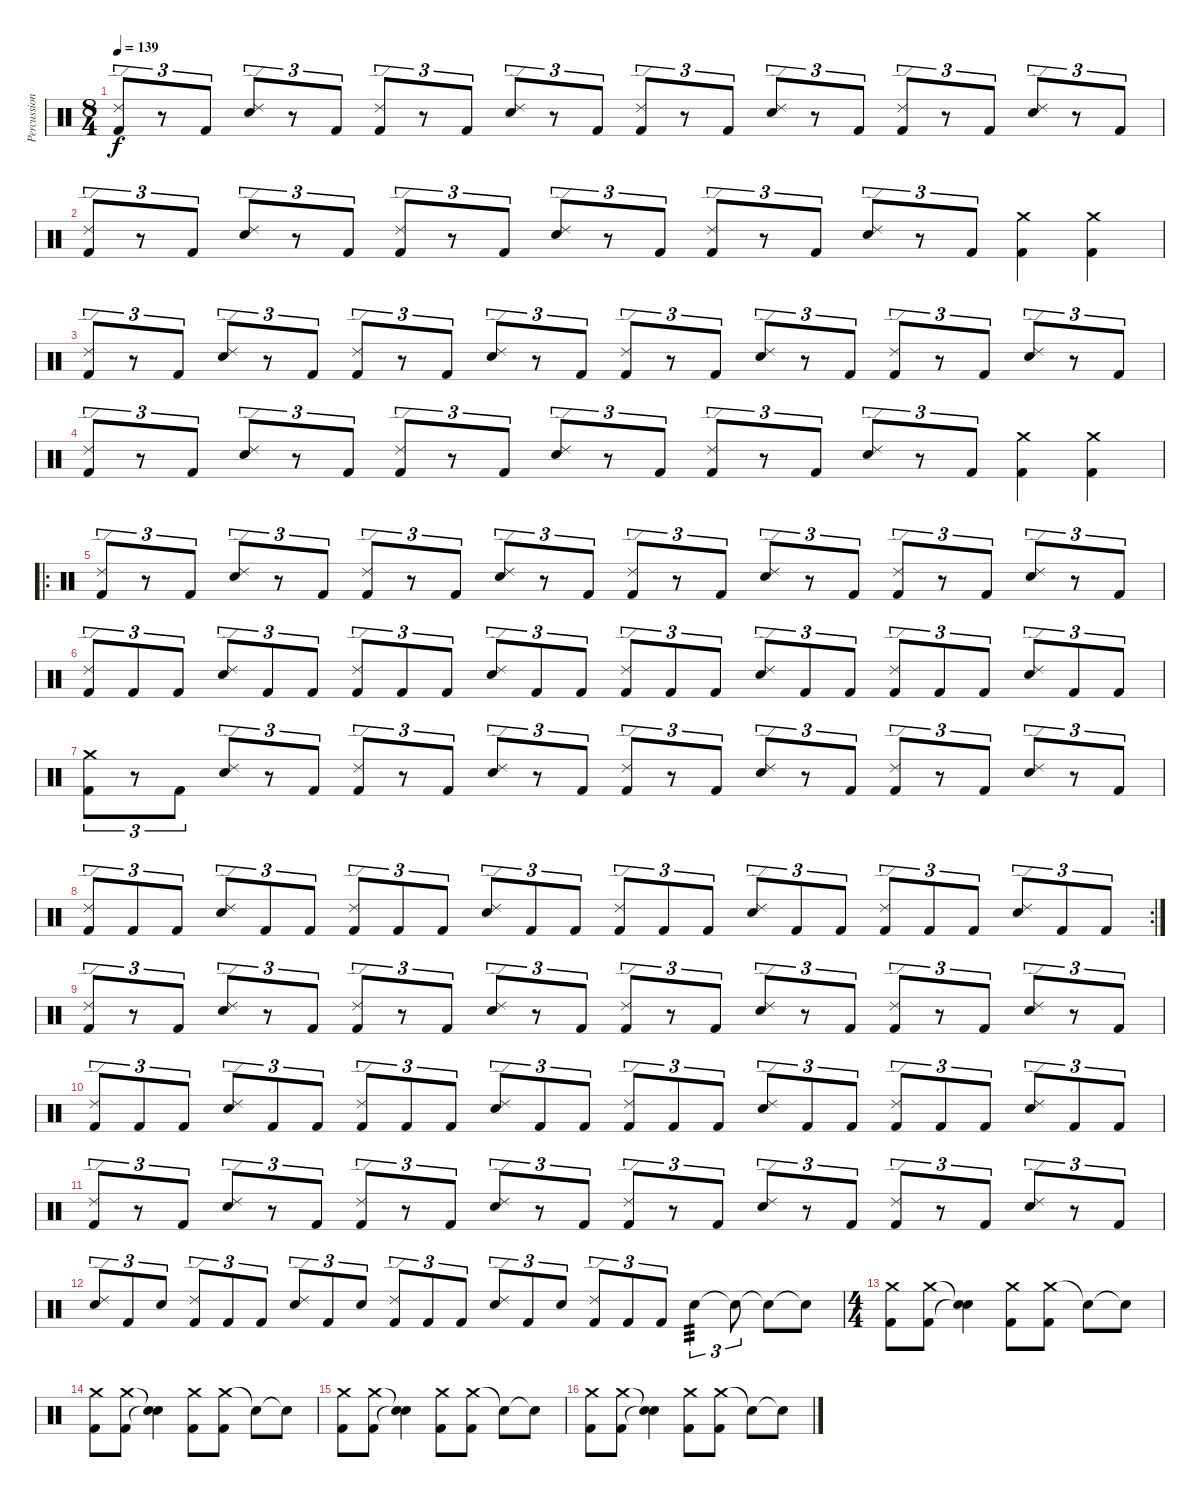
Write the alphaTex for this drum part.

\track ("Percussion" "Percussion") {instrument percussion}
\staff {score}
\articulation defaults
\ts (8 4)
\tempo 139
\clef neutral
\ks c
("Kick (hit) 2" "Ride (edge) 2").8{tu (3 2) dy f} r.8{tu (3 2)} "Kick (hit) 2".8{tu (3 2)} ("Snare (hit) 2" "Ride (edge) 2").8{tu (3 2)} r.8{tu (3 2)} "Kick (hit) 2".8{tu (3 2)} ("Kick (hit) 2" "Ride (edge) 2").8{tu (3 2)} r.8{tu (3 2)} "Kick (hit) 2".8{tu (3 2)} ("Snare (hit) 2" "Ride (edge) 2").8{tu (3 2)} r.8{tu (3 2)} "Kick (hit) 2".8{tu (3 2)} ("Kick (hit) 2" "Ride (edge) 2").8{tu (3 2)} r.8{tu (3 2)} "Kick (hit) 2".8{tu (3 2)} ("Snare (hit) 2" "Ride (edge) 2").8{tu (3 2)} r.8{tu (3 2)} "Kick (hit) 2".8{tu (3 2)} ("Kick (hit) 2" "Ride (edge) 2").8{tu (3 2)} r.8{tu (3 2)} "Kick (hit) 2".8{tu (3 2)} ("Snare (hit) 2" "Ride (edge) 2").8{tu (3 2)} r.8{tu (3 2)} "Kick (hit) 2".8{tu (3 2)} |
("Kick (hit) 2" "Ride (edge) 2").8{tu (3 2)} r.8{tu (3 2)} "Kick (hit) 2".8{tu (3 2)} ("Snare (hit) 2" "Ride (edge) 2").8{tu (3 2)} r.8{tu (3 2)} "Kick (hit) 2".8{tu (3 2)} ("Kick (hit) 2" "Ride (edge) 2").8{tu (3 2)} r.8{tu (3 2)} "Kick (hit) 2".8{tu (3 2)} ("Snare (hit) 2" "Ride (edge) 2").8{tu (3 2)} r.8{tu (3 2)} "Kick (hit) 2".8{tu (3 2)} ("Kick (hit) 2" "Ride (edge) 2").8{tu (3 2)} r.8{tu (3 2)} "Kick (hit) 2".8{tu (3 2)} ("Snare (hit) 2" "Ride (edge) 2").8{tu (3 2)} r.8{tu (3 2)} "Kick (hit) 2".8{tu (3 2)} ("Kick (hit) 2" "Crash medium (hit)").4 ("Kick (hit) 2" "Crash medium (hit)").4 |
("Kick (hit) 2" "Ride (edge) 2").8{tu (3 2)} r.8{tu (3 2)} "Kick (hit) 2".8{tu (3 2)} ("Snare (hit) 2" "Ride (edge) 2").8{tu (3 2)} r.8{tu (3 2)} "Kick (hit) 2".8{tu (3 2)} ("Kick (hit) 2" "Ride (edge) 2").8{tu (3 2)} r.8{tu (3 2)} "Kick (hit) 2".8{tu (3 2)} ("Snare (hit) 2" "Ride (edge) 2").8{tu (3 2)} r.8{tu (3 2)} "Kick (hit) 2".8{tu (3 2)} ("Kick (hit) 2" "Ride (edge) 2").8{tu (3 2)} r.8{tu (3 2)} "Kick (hit) 2".8{tu (3 2)} ("Snare (hit) 2" "Ride (edge) 2").8{tu (3 2)} r.8{tu (3 2)} "Kick (hit) 2".8{tu (3 2)} ("Kick (hit) 2" "Ride (edge) 2").8{tu (3 2)} r.8{tu (3 2)} "Kick (hit) 2".8{tu (3 2)} ("Snare (hit) 2" "Ride (edge) 2").8{tu (3 2)} r.8{tu (3 2)} "Kick (hit) 2".8{tu (3 2)} |
("Kick (hit) 2" "Ride (edge) 2").8{tu (3 2)} r.8{tu (3 2)} "Kick (hit) 2".8{tu (3 2)} ("Snare (hit) 2" "Ride (edge) 2").8{tu (3 2)} r.8{tu (3 2)} "Kick (hit) 2".8{tu (3 2)} ("Kick (hit) 2" "Ride (edge) 2").8{tu (3 2)} r.8{tu (3 2)} "Kick (hit) 2".8{tu (3 2)} ("Snare (hit) 2" "Ride (edge) 2").8{tu (3 2)} r.8{tu (3 2)} "Kick (hit) 2".8{tu (3 2)} ("Kick (hit) 2" "Ride (edge) 2").8{tu (3 2)} r.8{tu (3 2)} "Kick (hit) 2".8{tu (3 2)} ("Snare (hit) 2" "Ride (edge) 2").8{tu (3 2)} r.8{tu (3 2)} "Kick (hit) 2".8{tu (3 2)} ("Kick (hit) 2" "Crash medium (hit)").4 ("Kick (hit) 2" "Crash medium (hit)").4 |
\ro
("Kick (hit) 2" "Ride (edge) 2").8{tu (3 2)} r.8{tu (3 2)} "Kick (hit) 2".8{tu (3 2)} ("Snare (hit) 2" "Ride (edge) 2").8{tu (3 2)} r.8{tu (3 2)} "Kick (hit) 2".8{tu (3 2)} ("Kick (hit) 2" "Ride (edge) 2").8{tu (3 2)} r.8{tu (3 2)} "Kick (hit) 2".8{tu (3 2)} ("Snare (hit) 2" "Ride (edge) 2").8{tu (3 2)} r.8{tu (3 2)} "Kick (hit) 2".8{tu (3 2)} ("Kick (hit) 2" "Ride (edge) 2").8{tu (3 2)} r.8{tu (3 2)} "Kick (hit) 2".8{tu (3 2)} ("Snare (hit) 2" "Ride (edge) 2").8{tu (3 2)} r.8{tu (3 2)} "Kick (hit) 2".8{tu (3 2)} ("Kick (hit) 2" "Ride (edge) 2").8{tu (3 2)} r.8{tu (3 2)} "Kick (hit) 2".8{tu (3 2)} ("Snare (hit) 2" "Ride (edge) 2").8{tu (3 2)} r.8{tu (3 2)} "Kick (hit) 2".8{tu (3 2)} |
("Kick (hit) 2" "Ride (edge) 2").8{tu (3 2)} "Kick (hit) 2".8{tu (3 2)} "Kick (hit) 2".8{tu (3 2)} ("Snare (hit) 2" "Ride (edge) 2").8{tu (3 2)} "Kick (hit) 2".8{tu (3 2)} "Kick (hit) 2".8{tu (3 2)} ("Kick (hit) 2" "Ride (edge) 2").8{tu (3 2)} "Kick (hit) 2".8{tu (3 2)} "Kick (hit) 2".8{tu (3 2)} ("Snare (hit) 2" "Ride (edge) 2").8{tu (3 2)} "Kick (hit) 2".8{tu (3 2)} "Kick (hit) 2".8{tu (3 2)} ("Kick (hit) 2" "Ride (edge) 2").8{tu (3 2)} "Kick (hit) 2".8{tu (3 2)} "Kick (hit) 2".8{tu (3 2)} ("Snare (hit) 2" "Ride (edge) 2").8{tu (3 2)} "Kick (hit) 2".8{tu (3 2)} "Kick (hit) 2".8{tu (3 2)} ("Kick (hit) 2" "Ride (edge) 2").8{tu (3 2)} "Kick (hit) 2".8{tu (3 2)} "Kick (hit) 2".8{tu (3 2)} ("Snare (hit) 2" "Ride (edge) 2").8{tu (3 2)} "Kick (hit) 2".8{tu (3 2)} "Kick (hit) 2".8{tu (3 2)} |
("Kick (hit) 2" "Crash medium (hit)").8{tu (3 2)} r.8{tu (3 2)} "Kick (hit) 2".8{tu (3 2)} ("Snare (hit) 2" "Ride (edge) 2").8{tu (3 2)} r.8{tu (3 2)} "Kick (hit) 2".8{tu (3 2)} ("Kick (hit) 2" "Ride (edge) 2").8{tu (3 2)} r.8{tu (3 2)} "Kick (hit) 2".8{tu (3 2)} ("Snare (hit) 2" "Ride (edge) 2").8{tu (3 2)} r.8{tu (3 2)} "Kick (hit) 2".8{tu (3 2)} ("Kick (hit) 2" "Ride (edge) 2").8{tu (3 2)} r.8{tu (3 2)} "Kick (hit) 2".8{tu (3 2)} ("Snare (hit) 2" "Ride (edge) 2").8{tu (3 2)} r.8{tu (3 2)} "Kick (hit) 2".8{tu (3 2)} ("Kick (hit) 2" "Ride (edge) 2").8{tu (3 2)} r.8{tu (3 2)} "Kick (hit) 2".8{tu (3 2)} ("Snare (hit) 2" "Ride (edge) 2").8{tu (3 2)} r.8{tu (3 2)} "Kick (hit) 2".8{tu (3 2)} |
\rc 2
("Kick (hit) 2" "Ride (edge) 2").8{tu (3 2)} "Kick (hit) 2".8{tu (3 2)} "Kick (hit) 2".8{tu (3 2)} ("Snare (hit) 2" "Ride (edge) 2").8{tu (3 2)} "Kick (hit) 2".8{tu (3 2)} "Kick (hit) 2".8{tu (3 2)} ("Kick (hit) 2" "Ride (edge) 2").8{tu (3 2)} "Kick (hit) 2".8{tu (3 2)} "Kick (hit) 2".8{tu (3 2)} ("Snare (hit) 2" "Ride (edge) 2").8{tu (3 2)} "Kick (hit) 2".8{tu (3 2)} "Kick (hit) 2".8{tu (3 2)} ("Kick (hit) 2" "Ride (edge) 2").8{tu (3 2)} "Kick (hit) 2".8{tu (3 2)} "Kick (hit) 2".8{tu (3 2)} ("Snare (hit) 2" "Ride (edge) 2").8{tu (3 2)} "Kick (hit) 2".8{tu (3 2)} "Kick (hit) 2".8{tu (3 2)} ("Kick (hit) 2" "Ride (edge) 2").8{tu (3 2)} "Kick (hit) 2".8{tu (3 2)} "Kick (hit) 2".8{tu (3 2)} ("Snare (hit) 2" "Ride (edge) 2").8{tu (3 2)} "Kick (hit) 2".8{tu (3 2)} "Kick (hit) 2".8{tu (3 2)} |
("Kick (hit) 2" "Ride (edge) 2").8{tu (3 2)} r.8{tu (3 2)} "Kick (hit) 2".8{tu (3 2)} ("Snare (hit) 2" "Ride (edge) 2").8{tu (3 2)} r.8{tu (3 2)} "Kick (hit) 2".8{tu (3 2)} ("Kick (hit) 2" "Ride (edge) 2").8{tu (3 2)} r.8{tu (3 2)} "Kick (hit) 2".8{tu (3 2)} ("Snare (hit) 2" "Ride (edge) 2").8{tu (3 2)} r.8{tu (3 2)} "Kick (hit) 2".8{tu (3 2)} ("Kick (hit) 2" "Ride (edge) 2").8{tu (3 2)} r.8{tu (3 2)} "Kick (hit) 2".8{tu (3 2)} ("Snare (hit) 2" "Ride (edge) 2").8{tu (3 2)} r.8{tu (3 2)} "Kick (hit) 2".8{tu (3 2)} ("Kick (hit) 2" "Ride (edge) 2").8{tu (3 2)} r.8{tu (3 2)} "Kick (hit) 2".8{tu (3 2)} ("Snare (hit) 2" "Ride (edge) 2").8{tu (3 2)} r.8{tu (3 2)} "Kick (hit) 2".8{tu (3 2)} |
("Kick (hit) 2" "Ride (edge) 2").8{tu (3 2)} "Kick (hit) 2".8{tu (3 2)} "Kick (hit) 2".8{tu (3 2)} ("Snare (hit) 2" "Ride (edge) 2").8{tu (3 2)} "Kick (hit) 2".8{tu (3 2)} "Kick (hit) 2".8{tu (3 2)} ("Kick (hit) 2" "Ride (edge) 2").8{tu (3 2)} "Kick (hit) 2".8{tu (3 2)} "Kick (hit) 2".8{tu (3 2)} ("Snare (hit) 2" "Ride (edge) 2").8{tu (3 2)} "Kick (hit) 2".8{tu (3 2)} "Kick (hit) 2".8{tu (3 2)} ("Kick (hit) 2" "Ride (edge) 2").8{tu (3 2)} "Kick (hit) 2".8{tu (3 2)} "Kick (hit) 2".8{tu (3 2)} ("Snare (hit) 2" "Ride (edge) 2").8{tu (3 2)} "Kick (hit) 2".8{tu (3 2)} "Kick (hit) 2".8{tu (3 2)} ("Kick (hit) 2" "Ride (edge) 2").8{tu (3 2)} "Kick (hit) 2".8{tu (3 2)} "Kick (hit) 2".8{tu (3 2)} ("Snare (hit) 2" "Ride (edge) 2").8{tu (3 2)} "Kick (hit) 2".8{tu (3 2)} "Kick (hit) 2".8{tu (3 2)} |
("Kick (hit) 2" "Ride (edge) 2").8{tu (3 2)} r.8{tu (3 2)} "Kick (hit) 2".8{tu (3 2)} ("Snare (hit) 2" "Ride (edge) 2").8{tu (3 2)} r.8{tu (3 2)} "Kick (hit) 2".8{tu (3 2)} ("Kick (hit) 2" "Ride (edge) 2").8{tu (3 2)} r.8{tu (3 2)} "Kick (hit) 2".8{tu (3 2)} ("Snare (hit) 2" "Ride (edge) 2").8{tu (3 2)} r.8{tu (3 2)} "Kick (hit) 2".8{tu (3 2)} ("Kick (hit) 2" "Ride (edge) 2").8{tu (3 2)} r.8{tu (3 2)} "Kick (hit) 2".8{tu (3 2)} ("Snare (hit) 2" "Ride (edge) 2").8{tu (3 2)} r.8{tu (3 2)} "Kick (hit) 2".8{tu (3 2)} ("Kick (hit) 2" "Ride (edge) 2").8{tu (3 2)} r.8{tu (3 2)} "Kick (hit) 2".8{tu (3 2)} ("Snare (hit) 2" "Ride (edge) 2").8{tu (3 2)} r.8{tu (3 2)} "Kick (hit) 2".8{tu (3 2)} |
("Snare (hit) 2" "Ride (edge) 2").8{tu (3 2)} "Kick (hit) 2".8{tu (3 2)} "Snare (hit) 2".8{tu (3 2)} ("Kick (hit) 2" "Ride (edge) 2").8{tu (3 2)} "Kick (hit) 2".8{tu (3 2)} "Kick (hit) 2".8{tu (3 2)} ("Snare (hit) 2" "Ride (edge) 2").8{tu (3 2)} "Kick (hit) 2".8{tu (3 2)} "Snare (hit) 2".8{tu (3 2)} ("Kick (hit) 2" "Ride (edge) 2").8{tu (3 2)} "Kick (hit) 2".8{tu (3 2)} "Kick (hit) 2".8{tu (3 2)} ("Snare (hit) 2" "Ride (edge) 2").8{tu (3 2)} "Kick (hit) 2".8{tu (3 2)} "Snare (hit) 2".8{tu (3 2)} ("Kick (hit) 2" "Ride (edge) 2").8{tu (3 2)} "Kick (hit) 2".8{tu (3 2)} "Kick (hit) 2".8{tu (3 2)} "Snare (hit) 2".4{tu (3 2) tp 3} "Snare (hit)"{t}.8{tu (3 2)} "Snare (hit)"{t}.8 "Snare (hit)"{t}.8 |
\ts (4 4)
("Crash medium (hit)" "Kick (hit) 2").8 ("Crash medium (hit)" "Kick (hit) 2").8 ("Snare (hit)"{t} "Snare (hit)"{t}).4 ("Crash medium (hit)" "Kick (hit) 2").8 ("Crash medium (hit)" "Kick (hit) 2").8 "Snare (hit)"{t}.8 "Snare (hit)"{t}.8 |
("Crash medium (hit)" "Kick (hit) 2").8 ("Crash medium (hit)" "Kick (hit) 2").8 ("Snare (hit)"{t} "Snare (hit)"{t}).4 ("Crash medium (hit)" "Kick (hit) 2").8 ("Crash medium (hit)" "Kick (hit) 2").8 "Snare (hit)"{t}.8 "Snare (hit)"{t}.8 |
("Crash medium (hit)" "Kick (hit) 2").8 ("Crash medium (hit)" "Kick (hit) 2").8 ("Snare (hit)"{t} "Snare (hit)"{t}).4 ("Crash medium (hit)" "Kick (hit) 2").8 ("Crash medium (hit)" "Kick (hit) 2").8 "Snare (hit)"{t}.8 "Snare (hit)"{t}.8 |
("Crash medium (hit)" "Kick (hit) 2").8 ("Crash medium (hit)" "Kick (hit) 2").8 ("Snare (hit)"{t} "Snare (hit)"{t}).4 ("Crash medium (hit)" "Kick (hit) 2").8 ("Crash medium (hit)" "Kick (hit) 2").8 "Snare (hit)"{t}.8 "Snare (hit)"{t}.8
